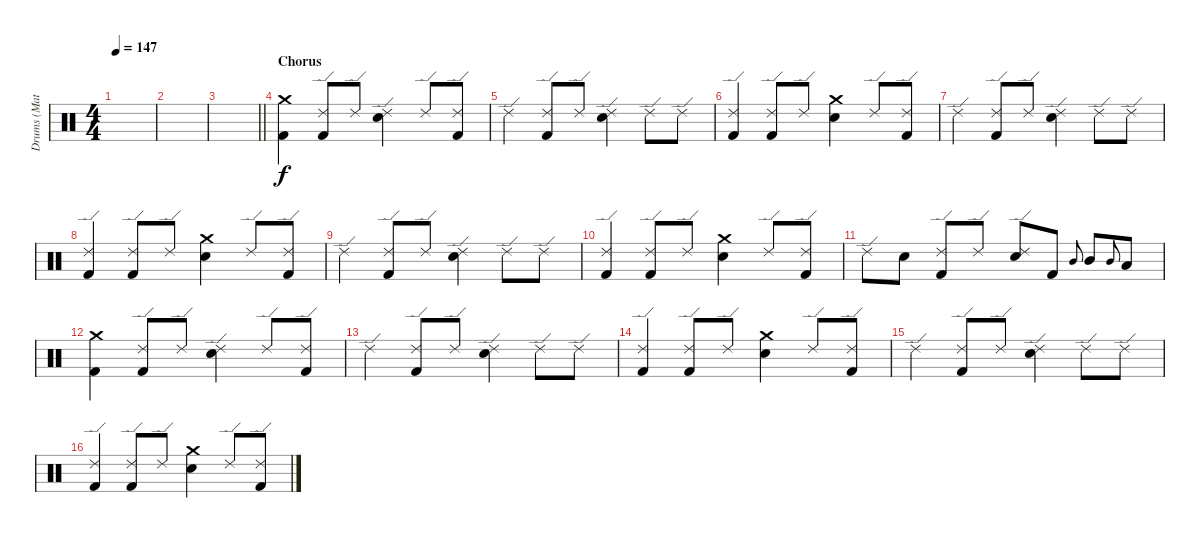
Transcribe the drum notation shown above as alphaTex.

\track ("Drums (Matt Laug)" "Drums (Mat") {instrument percussion}
\staff {score}
\articulation defaults
\ts (4 4)
\tempo 147
\clef neutral
\ks c
|
|
\barLineRight lightlight
|
\section ("" "Chorus")
("Crash medium (hit)" "Kick (hit) 2").4 ("Ride (edge) 2" "Kick (hit) 2").8 "Ride (edge) 2".8 ("Ride (edge) 2" "Electric Snare (hit)").4 "Ride (edge) 2".8 ("Ride (edge) 2" "Kick (hit) 2").8 |
"Ride (edge) 2".4 ("Ride (edge) 2" "Kick (hit) 2").8 "Ride (edge) 2".8 ("Ride (edge) 2" "Electric Snare (hit)").4 "Ride (edge) 2".8 "Ride (edge) 2".8 |
("Ride (edge) 2" "Kick (hit) 2").4 ("Ride (edge) 2" "Kick (hit) 2").8 "Ride (edge) 2".8 ("Crash medium (hit)" "Electric Snare (hit)").4 "Ride (edge) 2".8 ("Ride (edge) 2" "Kick (hit) 2").8 |
"Ride (edge) 2".4 ("Ride (edge) 2" "Kick (hit) 2").8 "Ride (edge) 2".8 ("Ride (edge) 2" "Electric Snare (hit)").4 "Ride (edge) 2".8 "Ride (edge) 2".8 |
("Ride (edge) 2" "Kick (hit) 2").4 ("Ride (edge) 2" "Kick (hit) 2").8 "Ride (edge) 2".8 ("Crash medium (hit)" "Electric Snare (hit)").4 "Ride (edge) 2".8 ("Ride (edge) 2" "Kick (hit) 2").8 |
"Ride (edge) 2".4 ("Ride (edge) 2" "Kick (hit) 2").8 "Ride (edge) 2".8 ("Ride (edge) 2" "Electric Snare (hit)").4 "Ride (edge) 2".8 "Ride (edge) 2".8 |
("Ride (edge) 2" "Kick (hit) 2").4 ("Ride (edge) 2" "Kick (hit) 2").8 "Ride (edge) 2".8 ("Crash medium (hit)" "Electric Snare (hit)").4 "Ride (edge) 2".8 ("Ride (edge) 2" "Kick (hit) 2").8 |
"Ride (edge) 2".8 "Electric Snare (hit)".8 ("Ride (edge) 2" "Kick (hit) 2").8 "Ride (edge) 2".8 ("Ride (edge) 2" "Electric Snare (hit)").8 "Kick (hit) 2".8 "Mid Tom (hit)".8{gr onbeat} "Mid Tom (hit)".8 "Mid Tom (hit)".8{gr onbeat} "Low Tom (hit)".8 |
("Crash medium (hit)" "Kick (hit) 2").4 ("Ride (edge) 2" "Kick (hit) 2").8 "Ride (edge) 2".8 ("Ride (edge) 2" "Electric Snare (hit)").4 "Ride (edge) 2".8 ("Ride (edge) 2" "Kick (hit) 2").8 |
"Ride (edge) 2".4 ("Ride (edge) 2" "Kick (hit) 2").8 "Ride (edge) 2".8 ("Ride (edge) 2" "Electric Snare (hit)").4 "Ride (edge) 2".8 "Ride (edge) 2".8 |
("Ride (edge) 2" "Kick (hit) 2").4 ("Ride (edge) 2" "Kick (hit) 2").8 "Ride (edge) 2".8 ("Crash medium (hit)" "Electric Snare (hit)").4 "Ride (edge) 2".8 ("Ride (edge) 2" "Kick (hit) 2").8 |
"Ride (edge) 2".4 ("Ride (edge) 2" "Kick (hit) 2").8 "Ride (edge) 2".8 ("Ride (edge) 2" "Electric Snare (hit)").4 "Ride (edge) 2".8 "Ride (edge) 2".8 |
("Ride (edge) 2" "Kick (hit) 2").4 ("Ride (edge) 2" "Kick (hit) 2").8 "Ride (edge) 2".8 ("Crash medium (hit)" "Electric Snare (hit)").4 "Ride (edge) 2".8 ("Ride (edge) 2" "Kick (hit) 2").8
